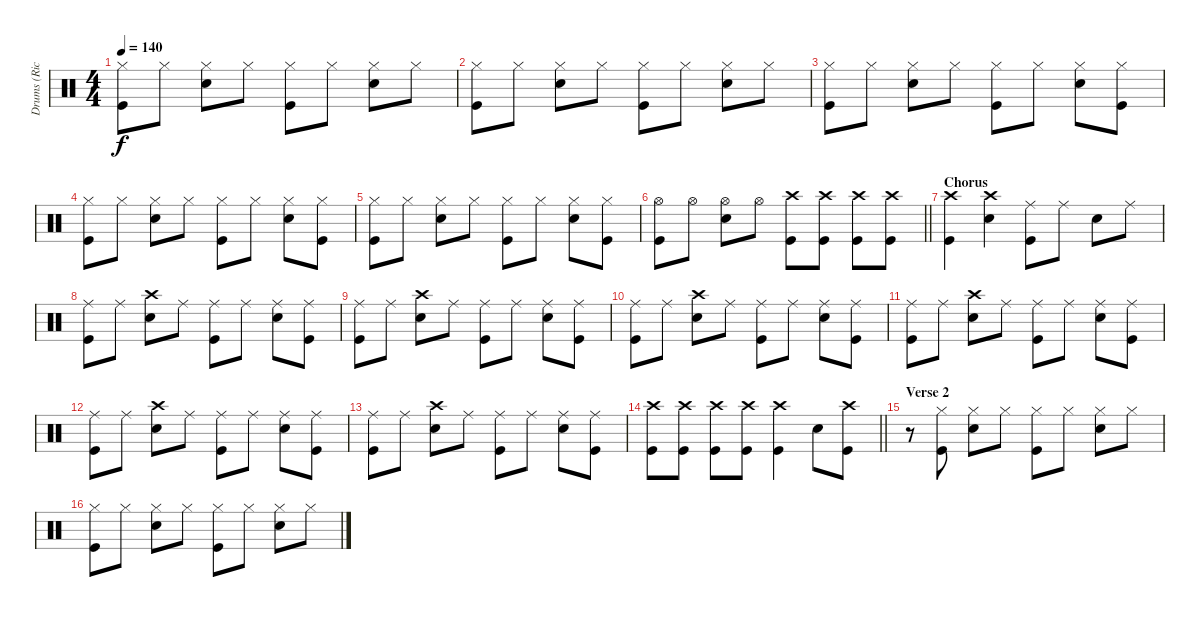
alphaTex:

\track ("Drums (Rick)" "Drums (Ric") {instrument percussion}
\staff {score}
\articulation defaults
\ts (4 4)
\tempo 140
\clef neutral
\ks aminor
("Hi-Hat (closed)" "Kick (hit)").8{dy f} "Hi-Hat (closed)".8 ("Hi-Hat (closed)" "Snare (hit) 2").8 "Hi-Hat (closed)".8 ("Hi-Hat (closed)" "Kick (hit)").8 "Hi-Hat (closed)".8 ("Hi-Hat (closed)" "Snare (hit) 2").8 "Hi-Hat (closed)".8 |
("Hi-Hat (closed)" "Kick (hit)").8 "Hi-Hat (closed)".8 ("Hi-Hat (closed)" "Snare (hit) 2").8 "Hi-Hat (closed)".8 ("Hi-Hat (closed)" "Kick (hit)").8 "Hi-Hat (closed)".8 ("Hi-Hat (closed)" "Snare (hit) 2").8 "Hi-Hat (closed)".8 |
("Hi-Hat (closed)" "Kick (hit)").8 "Hi-Hat (closed)".8 ("Hi-Hat (closed)" "Snare (hit) 2").8 "Hi-Hat (closed)".8 ("Hi-Hat (closed)" "Kick (hit)").8 "Hi-Hat (closed)".8 ("Hi-Hat (closed)" "Snare (hit) 2").8 ("Hi-Hat (closed)" "Kick (hit)").8 |
("Hi-Hat (closed)" "Kick (hit)").8 "Hi-Hat (closed)".8 ("Hi-Hat (closed)" "Snare (hit) 2").8 "Hi-Hat (closed)".8 ("Hi-Hat (closed)" "Kick (hit)").8 "Hi-Hat (closed)".8 ("Hi-Hat (closed)" "Snare (hit) 2").8 ("Hi-Hat (closed)" "Kick (hit)").8 |
("Hi-Hat (closed)" "Kick (hit)").8 "Hi-Hat (closed)".8 ("Hi-Hat (closed)" "Snare (hit) 2").8 "Hi-Hat (closed)".8 ("Hi-Hat (closed)" "Kick (hit)").8 "Hi-Hat (closed)".8 ("Hi-Hat (closed)" "Snare (hit) 2").8 ("Hi-Hat (closed)" "Kick (hit)").8 |
\barLineRight lightlight
("Hi-Hat (open)" "Kick (hit)").8 "Hi-Hat (open)".8 ("Hi-Hat (open)" "Snare (hit) 2").8 "Hi-Hat (open)".8 ("Crash high (hit)" "Kick (hit)").8 ("Crash high (hit)" "Kick (hit)").8 ("Crash high (hit)" "Kick (hit)").8 ("Crash high (hit)" "Kick (hit)").8 |
\section ("" "Chorus")
("Crash high (hit)" "Kick (hit)").4 ("Crash high (hit)" "Snare (hit) 2").4 ("Ride (middle)" "Kick (hit)").8 "Ride (middle)".8 "Snare (hit) 2".8 "Ride (middle)".8 |
("Ride (middle)" "Kick (hit)").8 "Ride (middle)".8 ("Crash high (hit)" "Snare (hit) 2").8 "Ride (middle)".8 ("Ride (middle)" "Kick (hit)").8 "Ride (middle)".8 ("Ride (middle)" "Snare (hit) 2").8 ("Ride (middle)" "Kick (hit)").8 |
("Ride (middle)" "Kick (hit)").8 "Ride (middle)".8 ("Crash high (hit)" "Snare (hit) 2").8 "Ride (middle)".8 ("Ride (middle)" "Kick (hit)").8 "Ride (middle)".8 ("Ride (middle)" "Snare (hit) 2").8 ("Ride (middle)" "Kick (hit)").8 |
("Ride (middle)" "Kick (hit)").8 "Ride (middle)".8 ("Crash high (hit)" "Snare (hit) 2").8 "Ride (middle)".8 ("Ride (middle)" "Kick (hit)").8 "Ride (middle)".8 ("Ride (middle)" "Snare (hit) 2").8 ("Ride (middle)" "Kick (hit)").8 |
("Ride (middle)" "Kick (hit)").8 "Ride (middle)".8 ("Crash high (hit)" "Snare (hit) 2").8 "Ride (middle)".8 ("Ride (middle)" "Kick (hit)").8 "Ride (middle)".8 ("Ride (middle)" "Snare (hit) 2").8 ("Ride (middle)" "Kick (hit)").8 |
("Ride (middle)" "Kick (hit)").8 "Ride (middle)".8 ("Crash high (hit)" "Snare (hit) 2").8 "Ride (middle)".8 ("Ride (middle)" "Kick (hit)").8 "Ride (middle)".8 ("Ride (middle)" "Snare (hit) 2").8 ("Ride (middle)" "Kick (hit)").8 |
("Ride (middle)" "Kick (hit)").8 "Ride (middle)".8 ("Crash high (hit)" "Snare (hit) 2").8 "Ride (middle)".8 ("Ride (middle)" "Kick (hit)").8 "Ride (middle)".8 ("Ride (middle)" "Snare (hit) 2").8 ("Ride (middle)" "Kick (hit)").8 |
\barLineRight lightlight
("Crash high (hit)" "Kick (hit)").8 ("Crash high (hit)" "Kick (hit)").8 ("Crash high (hit)" "Kick (hit)").8 ("Crash high (hit)" "Kick (hit)").8 ("Crash high (hit)" "Kick (hit)").4 "Snare (hit) 2".8 ("Crash high (hit)" "Kick (hit)").8 |
\section ("" "Verse 2")
r.8 ("Hi-Hat (closed)" "Kick (hit)").8 ("Hi-Hat (closed)" "Snare (hit) 2").8 "Hi-Hat (closed)".8 ("Hi-Hat (closed)" "Kick (hit)").8 "Hi-Hat (closed)".8 ("Hi-Hat (closed)" "Snare (hit) 2").8 "Hi-Hat (closed)".8 |
("Hi-Hat (closed)" "Kick (hit)").8 "Hi-Hat (closed)".8 ("Hi-Hat (closed)" "Snare (hit) 2").8 "Hi-Hat (closed)".8 ("Hi-Hat (closed)" "Kick (hit)").8 "Hi-Hat (closed)".8 ("Hi-Hat (closed)" "Snare (hit) 2").8 "Hi-Hat (closed)".8
